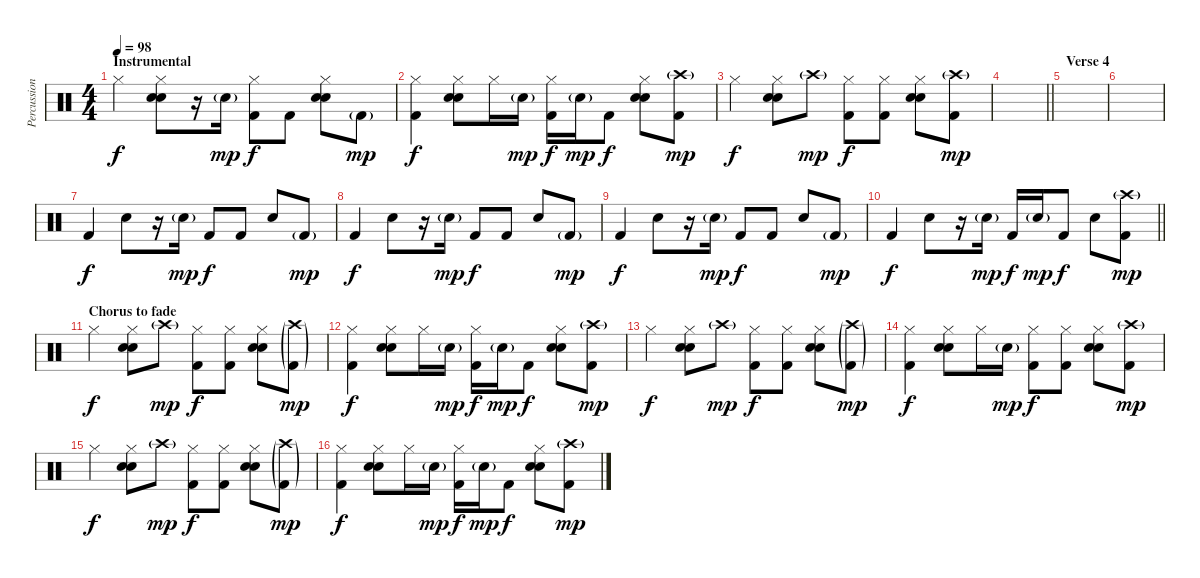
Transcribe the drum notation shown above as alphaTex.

\track ("Percussion" "Percussion") {instrument percussion}
\staff {score}
\articulation defaults
\ts (4 4)
\section ("" "Instrumental")
\tempo 98
\clef neutral
\ks c "Hi-Hat (closed)".4{dy f}
("Hi-Hat (closed)" "Snare (hit) 2" "Hand Clap (hit)").8 r.16 "Snare (hit) 2"{g}.16{dy mp} ("Hi-Hat (closed)" "Kick (hit) 2").8{dy f} "Kick (hit) 2".8 ("Hi-Hat (closed)" "Snare (hit) 2" "Hand Clap (hit)").8 "Kick (hit) 2"{g}.8{dy mp} |
("Hi-Hat (closed)" "Kick (hit) 2").4{dy f} ("Hi-Hat (closed)" "Snare (hit) 2" "Hand Clap (hit)").8 "Hi-Hat (closed)".16 "Snare (hit) 2"{g}.16{dy mp} ("Hi-Hat (closed)" "Kick (hit) 2").16{dy f} "Snare (hit) 2"{g}.16{dy mp} "Kick (hit) 2".8{dy f} ("Hi-Hat (closed)" "Snare (hit) 2" "Hand Clap (hit)").8 ("Crash high (hit)"{g} "Kick (hit) 2").8{dy mp} |
"Hi-Hat (closed)".4{dy f} ("Hi-Hat (closed)" "Snare (hit) 2" "Hand Clap (hit)").8 "Crash high (hit)"{g}.8{dy mp} ("Hi-Hat (closed)" "Kick (hit) 2").8{dy f} ("Hi-Hat (closed)" "Kick (hit) 2").8 ("Hi-Hat (closed)" "Snare (hit) 2" "Hand Clap (hit)").8 ("Crash high (hit)"{g} "Kick (hit) 2").8{dy mp} |
\barLineRight lightlight
|
\section ("" "Verse 4")
|
|
"Kick (hit) 2".4{dy f} "Snare (hit) 2".8 r.16 "Snare (hit) 2"{g}.16{dy mp} "Kick (hit) 2".8{dy f} "Kick (hit) 2".8 "Snare (hit) 2".8 "Kick (hit) 2"{g}.8{dy mp} |
"Kick (hit) 2".4{dy f} "Snare (hit) 2".8 r.16 "Snare (hit) 2"{g}.16{dy mp} "Kick (hit) 2".8{dy f} "Kick (hit) 2".8 "Snare (hit) 2".8 "Kick (hit) 2"{g}.8{dy mp} |
"Kick (hit) 2".4{dy f} "Snare (hit) 2".8 r.16 "Snare (hit) 2"{g}.16{dy mp} "Kick (hit) 2".8{dy f} "Kick (hit) 2".8 "Snare (hit) 2".8 "Kick (hit) 2"{g}.8{dy mp} |
\barLineRight lightlight "Kick (hit) 2".4{dy f} "Snare (hit) 2".8
r.16 "Snare (hit) 2"{g}.16{dy mp} "Kick (hit) 2".16{dy f} "Snare (hit) 2"{g}.16{dy mp} "Kick (hit) 2".8{dy f} "Snare (hit) 2".8 ("Crash high (hit)"{g} "Kick (hit) 2").8{dy mp} |
\section ("" "Chorus to fade")
"Hi-Hat (closed)".4{dy f} ("Hi-Hat (closed)" "Snare (hit) 2" "Hand Clap (hit)").8 "Crash high (hit)"{g}.8{dy mp} ("Hi-Hat (closed)" "Kick (hit) 2").8{dy f} ("Hi-Hat (closed)" "Kick (hit) 2").8 ("Hi-Hat (closed)" "Snare (hit) 2" "Hand Clap (hit)").8 ("Crash high (hit)"{g} "Kick (hit) 2"{g}).8{dy mp} |
("Hi-Hat (closed)" "Kick (hit) 2").4{dy f} ("Hi-Hat (closed)" "Snare (hit) 2" "Hand Clap (hit)").8 "Hi-Hat (closed)".16 "Snare (hit) 2"{g}.16{dy mp} ("Hi-Hat (closed)" "Kick (hit) 2").16{dy f} "Snare (hit) 2"{g}.16{dy mp} "Kick (hit) 2".8{dy f} ("Hi-Hat (closed)" "Snare (hit) 2" "Hand Clap (hit)").8 ("Crash high (hit)"{g} "Kick (hit) 2").8{dy mp} |
"Hi-Hat (closed)".4{dy f} ("Hi-Hat (closed)" "Snare (hit) 2" "Hand Clap (hit)").8 "Crash high (hit)"{g}.8{dy mp} ("Hi-Hat (closed)" "Kick (hit) 2").8{dy f} ("Hi-Hat (closed)" "Kick (hit) 2").8 ("Hi-Hat (closed)" "Snare (hit) 2" "Hand Clap (hit)").8 ("Crash high (hit)"{g} "Kick (hit) 2"{g}).8{dy mp} |
("Hi-Hat (closed)" "Kick (hit) 2").4{dy f} ("Hi-Hat (closed)" "Snare (hit) 2" "Hand Clap (hit)").8 "Hi-Hat (closed)".16 "Snare (hit) 2"{g}.16{dy mp} ("Hi-Hat (closed)" "Kick (hit) 2").8{dy f} ("Hi-Hat (closed)" "Kick (hit) 2").8 ("Hi-Hat (closed)" "Snare (hit) 2" "Hand Clap (hit)").8 ("Crash high (hit)"{g} "Kick (hit) 2").8{dy mp} |
"Hi-Hat (closed)".4{dy f} ("Hi-Hat (closed)" "Snare (hit) 2" "Hand Clap (hit)").8 "Crash high (hit)"{g}.8{dy mp} ("Hi-Hat (closed)" "Kick (hit) 2").8{dy f} ("Hi-Hat (closed)" "Kick (hit) 2").8 ("Hi-Hat (closed)" "Snare (hit) 2" "Hand Clap (hit)").8 ("Crash high (hit)"{g} "Kick (hit) 2"{g}).8{dy mp} |
("Hi-Hat (closed)" "Kick (hit) 2").4{dy f} ("Hi-Hat (closed)" "Snare (hit) 2" "Hand Clap (hit)").8 "Hi-Hat (closed)".16 "Snare (hit) 2"{g}.16{dy mp} ("Hi-Hat (closed)" "Kick (hit) 2").16{dy f} "Snare (hit) 2"{g}.16{dy mp} "Kick (hit) 2".8{dy f} ("Hi-Hat (closed)" "Snare (hit) 2" "Hand Clap (hit)").8 ("Crash high (hit)"{g} "Kick (hit) 2").8{dy mp}
